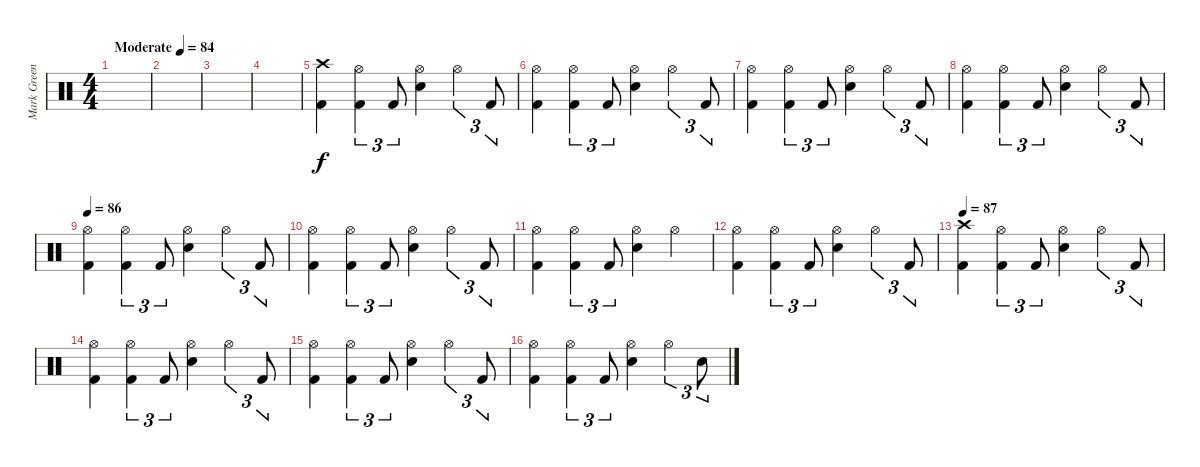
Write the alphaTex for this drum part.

\track ("Mark Greening" "Mark Green") {instrument percussion}
\staff {score}
\articulation defaults
\ts (4 4)
\tempo (84 "Moderate")
\clef neutral
\ks c
|
|
|
|
("Crash high (hit)" "Kick (hit) 2").4{volume 12} ("Hi-Hat (open)" "Kick (hit) 2").4{tu (3 2)} "Kick (hit) 2".8{tu (3 2)} ("Hi-Hat (open)" "Electric Snare (hit)").4 "Hi-Hat (open)".4{tu (3 2)} "Kick (hit) 2".8{tu (3 2)} |
("Hi-Hat (open)" "Kick (hit) 2").4 ("Hi-Hat (open)" "Kick (hit) 2").4{tu (3 2)} "Kick (hit) 2".8{tu (3 2)} ("Hi-Hat (open)" "Electric Snare (hit)").4 "Hi-Hat (open)".4{tu (3 2)} "Kick (hit) 2".8{tu (3 2)} |
("Hi-Hat (open)" "Kick (hit) 2").4 ("Hi-Hat (open)" "Kick (hit) 2").4{tu (3 2)} "Kick (hit) 2".8{tu (3 2)} ("Hi-Hat (open)" "Electric Snare (hit)").4 "Hi-Hat (open)".4{tu (3 2)} "Kick (hit) 2".8{tu (3 2)} |
("Hi-Hat (open)" "Kick (hit) 2").4 ("Hi-Hat (open)" "Kick (hit) 2").4{tu (3 2)} "Kick (hit) 2".8{tu (3 2)} ("Hi-Hat (open)" "Electric Snare (hit)").4 "Hi-Hat (open)".4{tu (3 2)} "Kick (hit) 2".8{tu (3 2)} |
\tempo 86
("Hi-Hat (open)" "Kick (hit) 2").4 ("Hi-Hat (open)" "Kick (hit) 2").4{tu (3 2)} "Kick (hit) 2".8{tu (3 2)} ("Hi-Hat (open)" "Electric Snare (hit)").4 "Hi-Hat (open)".4{tu (3 2)} "Kick (hit) 2".8{tu (3 2)} |
("Hi-Hat (open)" "Kick (hit) 2").4 ("Hi-Hat (open)" "Kick (hit) 2").4{tu (3 2)} "Kick (hit) 2".8{tu (3 2)} ("Hi-Hat (open)" "Electric Snare (hit)").4 "Hi-Hat (open)".4{tu (3 2)} "Kick (hit) 2".8{tu (3 2)} |
("Hi-Hat (open)" "Kick (hit) 2").4 ("Hi-Hat (open)" "Kick (hit) 2").4{tu (3 2)} "Kick (hit) 2".8{tu (3 2)} ("Hi-Hat (open)" "Electric Snare (hit)").4 "Hi-Hat (open)".4 |
("Hi-Hat (open)" "Kick (hit) 2").4 ("Hi-Hat (open)" "Kick (hit) 2").4{tu (3 2)} "Kick (hit) 2".8{tu (3 2)} ("Hi-Hat (open)" "Electric Snare (hit)").4 "Hi-Hat (open)".4{tu (3 2)} "Kick (hit) 2".8{tu (3 2)} |
\tempo 87
("Crash high (hit)" "Kick (hit) 2").4 ("Hi-Hat (open)" "Kick (hit) 2").4{tu (3 2)} "Kick (hit) 2".8{tu (3 2)} ("Hi-Hat (open)" "Electric Snare (hit)").4 "Hi-Hat (open)".4{tu (3 2)} "Kick (hit) 2".8{tu (3 2)} |
("Hi-Hat (open)" "Kick (hit) 2").4 ("Hi-Hat (open)" "Kick (hit) 2").4{tu (3 2)} "Kick (hit) 2".8{tu (3 2)} ("Hi-Hat (open)" "Electric Snare (hit)").4 "Hi-Hat (open)".4{tu (3 2)} "Kick (hit) 2".8{tu (3 2)} |
("Hi-Hat (open)" "Kick (hit) 2").4 ("Hi-Hat (open)" "Kick (hit) 2").4{tu (3 2)} "Kick (hit) 2".8{tu (3 2)} ("Hi-Hat (open)" "Electric Snare (hit)").4 "Hi-Hat (open)".4{tu (3 2)} "Kick (hit) 2".8{tu (3 2)} |
("Hi-Hat (open)" "Kick (hit) 2").4 ("Hi-Hat (open)" "Kick (hit) 2").4{tu (3 2)} "Kick (hit) 2".8{tu (3 2)} ("Hi-Hat (open)" "Electric Snare (hit)").4 "Hi-Hat (open)".4{tu (3 2)} "Electric Snare (hit)".8{tu (3 2)}
